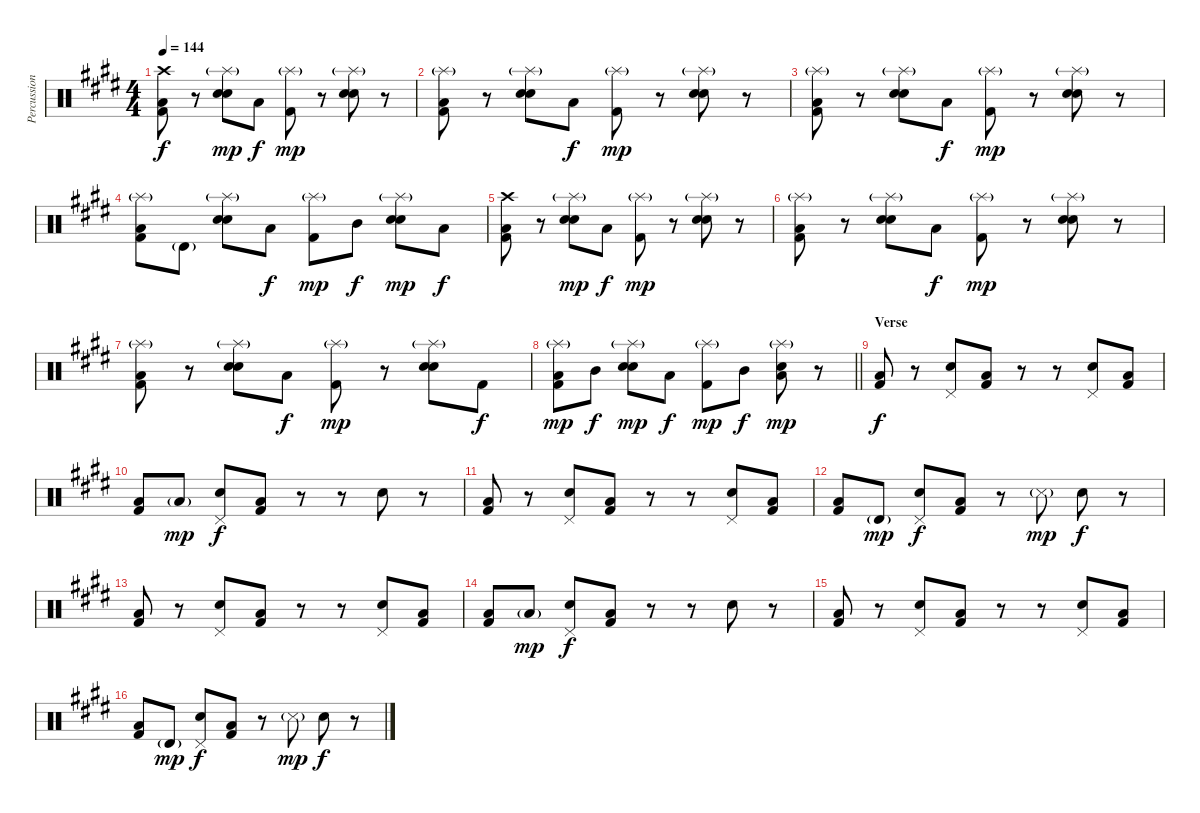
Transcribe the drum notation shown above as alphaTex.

\track ("Percussion" "Percussion") {instrument percussion}
\staff {score}
\articulation defaults
\ts (4 4)
\tempo 144
\clef neutral
\ks e
("Crash high (hit)" "Low Floor Tom (hit)" "Kick (hit) 2").8{dy f} r.8 ("Splash (hit)"{g} "Hand Clap (hit)" "Electric Snare (hit)").8{dy mp} "Low Floor Tom (hit)".8{dy f} ("Splash (hit)"{g} "Kick (hit) 2").8{dy mp} r.8 ("Splash (hit)"{g} "Hand Clap (hit)" "Electric Snare (hit)").8 r.8 |
("Splash (hit)"{g} "Low Floor Tom (hit)" "Kick (hit) 2").8 r.8 ("Splash (hit)"{g} "Hand Clap (hit)" "Electric Snare (hit)").8 "Low Floor Tom (hit)".8{dy f} ("Splash (hit)"{g} "Kick (hit) 2").8{dy mp} r.8 ("Splash (hit)"{g} "Hand Clap (hit)" "Electric Snare (hit)").8 r.8 |
("Splash (hit)"{g} "Low Floor Tom (hit)" "Kick (hit) 2").8 r.8 ("Splash (hit)"{g} "Hand Clap (hit)" "Electric Snare (hit)").8 "Low Floor Tom (hit)".8{dy f} ("Splash (hit)"{g} "Kick (hit) 2").8{dy mp} r.8 ("Splash (hit)"{g} "Hand Clap (hit)" "Electric Snare (hit)").8 r.8 |
("Splash (hit)"{g} "Low Floor Tom (hit)" "Kick (hit) 2").8 "Timbale high (hit)"{g}.8 ("Splash (hit)"{g} "Hand Clap (hit)" "Electric Snare (hit)").8 "Low Floor Tom (hit)".8{dy f} ("Splash (hit)"{g} "Kick (hit) 2").8{dy mp} "Mid Tom (hit)".8{dy f} ("Splash (hit)"{g} "Hand Clap (hit)" "Electric Snare (hit)").8{dy mp} "Low Tom (hit)".8{dy f} |
("Crash high (hit)" "Low Floor Tom (hit)" "Kick (hit) 2").8 r.8 ("Splash (hit)"{g} "Hand Clap (hit)" "Electric Snare (hit)").8{dy mp} "Low Floor Tom (hit)".8{dy f} ("Splash (hit)"{g} "Kick (hit) 2").8{dy mp} r.8 ("Splash (hit)"{g} "Hand Clap (hit)" "Electric Snare (hit)").8 r.8 |
("Splash (hit)"{g} "Low Floor Tom (hit)" "Kick (hit) 2").8 r.8 ("Splash (hit)"{g} "Hand Clap (hit)" "Electric Snare (hit)").8 "Low Floor Tom (hit)".8{dy f} ("Splash (hit)"{g} "Kick (hit) 2").8{dy mp} r.8 ("Splash (hit)"{g} "Hand Clap (hit)" "Electric Snare (hit)").8 r.8 |
("Splash (hit)"{g} "Low Floor Tom (hit)" "Kick (hit) 2").8 r.8 ("Splash (hit)"{g} "Hand Clap (hit)" "Electric Snare (hit)").8 "Low Floor Tom (hit)".8{dy f} ("Splash (hit)"{g} "Kick (hit) 2").8{dy mp} r.8 ("Splash (hit)"{g} "Hand Clap (hit)" "Electric Snare (hit)").8 "Kick (hit) 2".8{dy f} |
\barLineRight lightlight
("Splash (hit)"{g} "Low Floor Tom (hit)" "Kick (hit) 2").8{dy mp} "Mid Tom (hit)".8{dy f} ("Splash (hit)"{g} "Hand Clap (hit)" "Electric Snare (hit)").8{dy mp} "Low Floor Tom (hit)".8{dy f} ("Splash (hit)"{g} "Kick (hit) 2").8{dy mp} "Mid Tom (hit)".8{dy f} ("Splash (hit)"{g} "Hand Clap (hit)" "Low Tom (hit)").8{dy mp} r.8 |
\section ("" "Verse")
("Low Floor Tom (hit)" "Kick (hit) 2").8{dy f} r.8 ("Pedal Hi-Hat (hit)" "Hand Clap (hit)").8 ("Low Floor Tom (hit)" "Kick (hit) 2").8 r.8 r.8 ("Pedal Hi-Hat (hit)" "Hand Clap (hit)").8 ("Low Floor Tom (hit)" "Kick (hit) 2").8 |
("Low Floor Tom (hit)" "Kick (hit) 2").8 "Low Tom (hit)"{g}.8{dy mp} ("Pedal Hi-Hat (hit)" "Hand Clap (hit)").8{dy f} ("Low Floor Tom (hit)" "Kick (hit) 2").8 r.8 r.8 "Hand Clap (hit)".8 r.8 |
("Low Floor Tom (hit)" "Kick (hit) 2").8 r.8 ("Pedal Hi-Hat (hit)" "Hand Clap (hit)").8 ("Low Floor Tom (hit)" "Kick (hit) 2").8 r.8 r.8 ("Pedal Hi-Hat (hit)" "Hand Clap (hit)").8 ("Low Floor Tom (hit)" "Kick (hit) 2").8 |
("Low Floor Tom (hit)" "Kick (hit) 2").8 "Timbale high (hit)"{g}.8{dy mp} ("Pedal Hi-Hat (hit)" "Hand Clap (hit)").8{dy f} ("Low Floor Tom (hit)" "Kick (hit) 2").8 r.8 "Snare (side stick) 3"{g}.8{dy mp} "Hand Clap (hit)".8{dy f} r.8 |
("Low Floor Tom (hit)" "Kick (hit) 2").8 r.8 ("Pedal Hi-Hat (hit)" "Hand Clap (hit)").8 ("Low Floor Tom (hit)" "Kick (hit) 2").8 r.8 r.8 ("Pedal Hi-Hat (hit)" "Hand Clap (hit)").8 ("Low Floor Tom (hit)" "Kick (hit) 2").8 |
("Low Floor Tom (hit)" "Kick (hit) 2").8 "Low Tom (hit)"{g}.8{dy mp} ("Pedal Hi-Hat (hit)" "Hand Clap (hit)").8{dy f} ("Low Floor Tom (hit)" "Kick (hit) 2").8 r.8 r.8 "Hand Clap (hit)".8 r.8 |
("Low Floor Tom (hit)" "Kick (hit) 2").8 r.8 ("Pedal Hi-Hat (hit)" "Hand Clap (hit)").8 ("Low Floor Tom (hit)" "Kick (hit) 2").8 r.8 r.8 ("Pedal Hi-Hat (hit)" "Hand Clap (hit)").8 ("Low Floor Tom (hit)" "Kick (hit) 2").8 |
("Low Floor Tom (hit)" "Kick (hit) 2").8 "Timbale high (hit)"{g}.8{dy mp} ("Pedal Hi-Hat (hit)" "Hand Clap (hit)").8{dy f} ("Low Floor Tom (hit)" "Kick (hit) 2").8 r.8 "Snare (side stick) 3"{g}.8{dy mp} "Hand Clap (hit)".8{dy f} r.8
